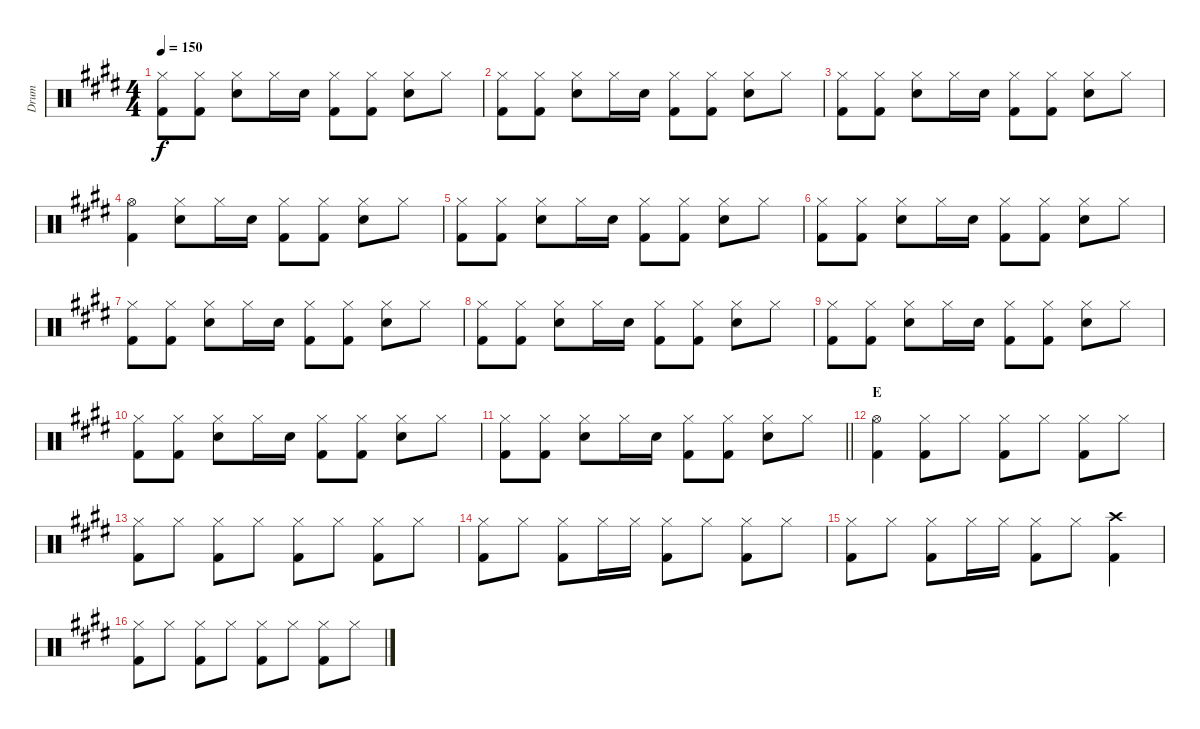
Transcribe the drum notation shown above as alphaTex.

\track ("Drum" "Drum") {instrument percussion}
\staff {score}
\articulation defaults
\ts (4 4)
\tempo 150
\clef neutral
\ks c#minor
("Hi-Hat (closed)" "Kick (hit) 2").8{dy f} ("Hi-Hat (closed)" "Kick (hit) 2").8 ("Hi-Hat (closed)" "Snare (hit) 2").8 "Hi-Hat (closed)".16 "Snare (hit) 2".16 ("Hi-Hat (closed)" "Kick (hit) 2").8 ("Hi-Hat (closed)" "Kick (hit) 2").8 ("Hi-Hat (closed)" "Snare (hit) 2").8 "Hi-Hat (closed)".8 |
("Hi-Hat (closed)" "Kick (hit) 2").8 ("Hi-Hat (closed)" "Kick (hit) 2").8 ("Hi-Hat (closed)" "Snare (hit) 2").8 "Hi-Hat (closed)".16 "Snare (hit) 2".16 ("Hi-Hat (closed)" "Kick (hit) 2").8 ("Hi-Hat (closed)" "Kick (hit) 2").8 ("Hi-Hat (closed)" "Snare (hit) 2").8 "Hi-Hat (closed)".8 |
("Hi-Hat (closed)" "Kick (hit) 2").8 ("Hi-Hat (closed)" "Kick (hit) 2").8 ("Hi-Hat (closed)" "Snare (hit) 2").8 "Hi-Hat (closed)".16 "Snare (hit) 2".16 ("Hi-Hat (closed)" "Kick (hit) 2").8 ("Hi-Hat (closed)" "Kick (hit) 2").8 ("Hi-Hat (closed)" "Snare (hit) 2").8 "Hi-Hat (closed)".8 |
("Hi-Hat (open)" "Kick (hit) 2").4 ("Hi-Hat (closed)" "Snare (hit) 2").8 "Hi-Hat (closed)".16 "Snare (hit) 2".16 ("Hi-Hat (closed)" "Kick (hit) 2").8 ("Hi-Hat (closed)" "Kick (hit) 2").8 ("Hi-Hat (closed)" "Snare (hit) 2").8 "Hi-Hat (closed)".8 |
("Hi-Hat (closed)" "Kick (hit) 2").8 ("Hi-Hat (closed)" "Kick (hit) 2").8 ("Hi-Hat (closed)" "Snare (hit) 2").8 "Hi-Hat (closed)".16 "Snare (hit) 2".16 ("Hi-Hat (closed)" "Kick (hit) 2").8 ("Hi-Hat (closed)" "Kick (hit) 2").8 ("Hi-Hat (closed)" "Snare (hit) 2").8 "Hi-Hat (closed)".8 |
("Hi-Hat (closed)" "Kick (hit) 2").8 ("Hi-Hat (closed)" "Kick (hit) 2").8 ("Hi-Hat (closed)" "Snare (hit) 2").8 "Hi-Hat (closed)".16 "Snare (hit) 2".16 ("Hi-Hat (closed)" "Kick (hit) 2").8 ("Hi-Hat (closed)" "Kick (hit) 2").8 ("Hi-Hat (closed)" "Snare (hit) 2").8 "Hi-Hat (closed)".8 |
("Hi-Hat (closed)" "Kick (hit) 2").8 ("Hi-Hat (closed)" "Kick (hit) 2").8 ("Hi-Hat (closed)" "Snare (hit) 2").8 "Hi-Hat (closed)".16 "Snare (hit) 2".16 ("Hi-Hat (closed)" "Kick (hit) 2").8 ("Hi-Hat (closed)" "Kick (hit) 2").8 ("Hi-Hat (closed)" "Snare (hit) 2").8 "Hi-Hat (closed)".8 |
("Hi-Hat (closed)" "Kick (hit) 2").8 ("Hi-Hat (closed)" "Kick (hit) 2").8 ("Hi-Hat (closed)" "Snare (hit) 2").8 "Hi-Hat (closed)".16 "Snare (hit) 2".16 ("Hi-Hat (closed)" "Kick (hit) 2").8 ("Hi-Hat (closed)" "Kick (hit) 2").8 ("Hi-Hat (closed)" "Snare (hit) 2").8 "Hi-Hat (closed)".8 |
("Hi-Hat (closed)" "Kick (hit) 2").8 ("Hi-Hat (closed)" "Kick (hit) 2").8 ("Hi-Hat (closed)" "Snare (hit) 2").8 "Hi-Hat (closed)".16 "Snare (hit) 2".16 ("Hi-Hat (closed)" "Kick (hit) 2").8 ("Hi-Hat (closed)" "Kick (hit) 2").8 ("Hi-Hat (closed)" "Snare (hit) 2").8 "Hi-Hat (closed)".8 |
("Hi-Hat (closed)" "Kick (hit) 2").8 ("Hi-Hat (closed)" "Kick (hit) 2").8 ("Hi-Hat (closed)" "Snare (hit) 2").8 "Hi-Hat (closed)".16 "Snare (hit) 2".16 ("Hi-Hat (closed)" "Kick (hit) 2").8 ("Hi-Hat (closed)" "Kick (hit) 2").8 ("Hi-Hat (closed)" "Snare (hit) 2").8 "Hi-Hat (closed)".8 |
\barLineRight lightlight
("Hi-Hat (closed)" "Kick (hit) 2").8 ("Hi-Hat (closed)" "Kick (hit) 2").8 ("Hi-Hat (closed)" "Snare (hit) 2").8 "Hi-Hat (closed)".16 "Snare (hit) 2".16 ("Hi-Hat (closed)" "Kick (hit) 2").8 ("Hi-Hat (closed)" "Kick (hit) 2").8 ("Hi-Hat (closed)" "Snare (hit) 2").8 "Hi-Hat (closed)".8 |
\section ("" "E")
("Hi-Hat (open)" "Kick (hit) 2").4 ("Hi-Hat (closed)" "Kick (hit) 2").8 "Hi-Hat (closed)".8 ("Hi-Hat (closed)" "Kick (hit) 2").8 "Hi-Hat (closed)".8 ("Hi-Hat (closed)" "Kick (hit) 2").8 "Hi-Hat (closed)".8 |
("Hi-Hat (closed)" "Kick (hit) 2").8 "Hi-Hat (closed)".8 ("Hi-Hat (closed)" "Kick (hit) 2").8 "Hi-Hat (closed)".8 ("Hi-Hat (closed)" "Kick (hit) 2").8 "Hi-Hat (closed)".8 ("Hi-Hat (closed)" "Kick (hit) 2").8 "Hi-Hat (closed)".8 |
("Hi-Hat (closed)" "Kick (hit) 2").8 "Hi-Hat (closed)".8 ("Hi-Hat (closed)" "Kick (hit) 2").8 "Hi-Hat (closed)".16 "Hi-Hat (closed)".16 ("Hi-Hat (closed)" "Kick (hit) 2").8 "Hi-Hat (closed)".8 ("Hi-Hat (closed)" "Kick (hit) 2").8 "Hi-Hat (closed)".8 |
("Hi-Hat (closed)" "Kick (hit) 2").8 "Hi-Hat (closed)".8 ("Hi-Hat (closed)" "Kick (hit) 2").8 "Hi-Hat (closed)".16 "Hi-Hat (closed)".16 ("Hi-Hat (closed)" "Kick (hit) 2").8 "Hi-Hat (closed)".8 ("Crash high (hit)" "Kick (hit) 2").4 |
("Hi-Hat (closed)" "Kick (hit) 2").8 "Hi-Hat (closed)".8 ("Hi-Hat (closed)" "Kick (hit) 2").8 "Hi-Hat (closed)".8 ("Hi-Hat (closed)" "Kick (hit) 2").8 "Hi-Hat (closed)".8 ("Hi-Hat (closed)" "Kick (hit) 2").8 "Hi-Hat (closed)".8
